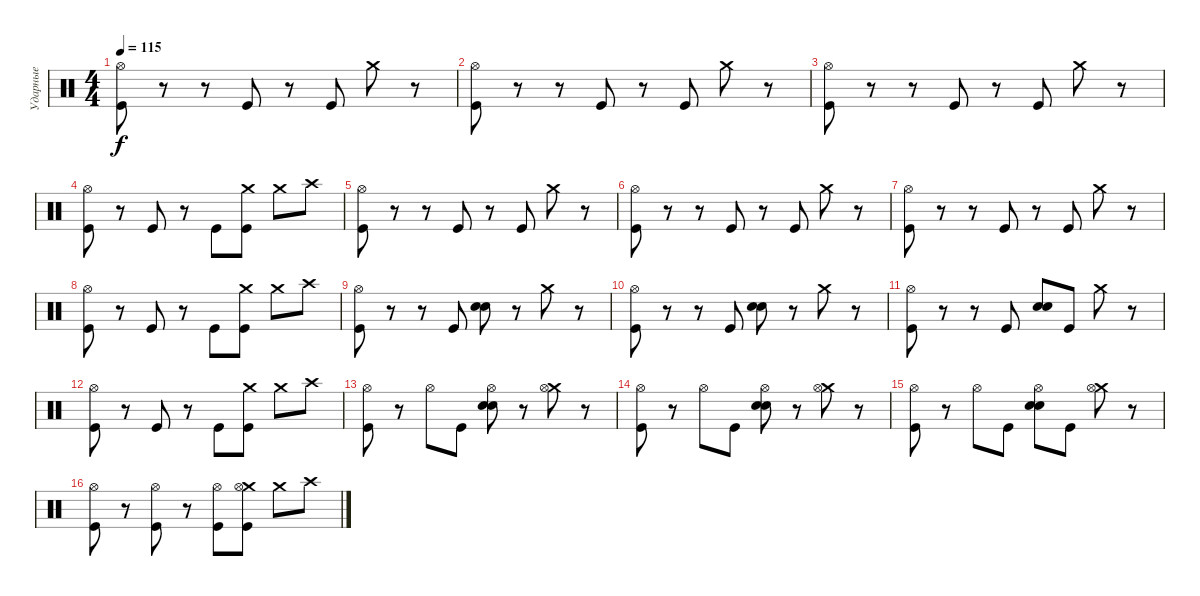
\track ("Ударные" "Ударные") {instrument percussion}
\staff {score}
\articulation defaults
\ts (4 4)
\tempo 115
\clef neutral
\ks c
("Hi-Hat (open)" "Kick (hit)").8{dy f} r.8 r.8 "Kick (hit)".8 r.8 "Kick (hit)".8 "Crash medium (hit)".8 r.8 |
("Hi-Hat (open)" "Kick (hit)").8 r.8 r.8 "Kick (hit)".8 r.8 "Kick (hit)".8 "Crash medium (hit)".8 r.8 |
("Hi-Hat (open)" "Kick (hit)").8 r.8 r.8 "Kick (hit)".8 r.8 "Kick (hit)".8 "Crash medium (hit)".8 r.8 |
("Hi-Hat (open)" "Kick (hit)").8 r.8 "Kick (hit)".8 r.8 "Kick (hit)".8 ("Crash medium (hit)" "Kick (hit)").8 "Crash medium (hit)".8 "Crash high (hit)".8 |
("Hi-Hat (open)" "Kick (hit)").8 r.8 r.8 "Kick (hit)".8 r.8 "Kick (hit)".8 "Crash medium (hit)".8 r.8 |
("Hi-Hat (open)" "Kick (hit)").8 r.8 r.8 "Kick (hit)".8 r.8 "Kick (hit)".8 "Crash medium (hit)".8 r.8 |
("Hi-Hat (open)" "Kick (hit)").8 r.8 r.8 "Kick (hit)".8 r.8 "Kick (hit)".8 "Crash medium (hit)".8 r.8 |
("Hi-Hat (open)" "Kick (hit)").8 r.8 "Kick (hit)".8 r.8 "Kick (hit)".8 ("Crash medium (hit)" "Kick (hit)").8 "Crash medium (hit)".8 "Crash high (hit)".8 |
("Hi-Hat (open)" "Kick (hit)").8 r.8 r.8 "Kick (hit)".8 ("Snare (hit) 2" "Snare (hit) 2").8 r.8 "Crash medium (hit)".8 r.8 |
("Hi-Hat (open)" "Kick (hit)").8 r.8 r.8 "Kick (hit)".8 ("Snare (hit) 2" "Snare (hit) 2").8 r.8 "Crash medium (hit)".8 r.8 |
("Hi-Hat (open)" "Kick (hit)").8 r.8 r.8 "Kick (hit)".8 ("Snare (hit) 2" "Snare (hit) 2").8 "Kick (hit)".8 "Crash medium (hit)".8 r.8 |
("Hi-Hat (open)" "Kick (hit)").8 r.8 "Kick (hit)".8 r.8 "Kick (hit)".8 ("Crash medium (hit)" "Kick (hit)").8 "Crash medium (hit)".8 "Crash high (hit)".8 |
("Hi-Hat (open)" "Kick (hit)").8 r.8 "Hi-Hat (open)".8 "Kick (hit)".8 ("Hi-Hat (open)" "Snare (hit) 2" "Snare (hit) 2").8 r.8 ("Crash medium (hit)" "Hi-Hat (open)").8 r.8 |
("Hi-Hat (open)" "Kick (hit)").8 r.8 "Hi-Hat (open)".8 "Kick (hit)".8 ("Hi-Hat (open)" "Snare (hit) 2" "Snare (hit) 2").8 r.8 ("Crash medium (hit)" "Hi-Hat (open)").8 r.8 |
("Hi-Hat (open)" "Kick (hit)").8 r.8 "Hi-Hat (open)".8 "Kick (hit)".8 ("Hi-Hat (open)" "Snare (hit) 2" "Snare (hit) 2").8 "Kick (hit)".8 ("Crash medium (hit)" "Hi-Hat (open)").8 r.8 |
("Hi-Hat (open)" "Kick (hit)").8 r.8 ("Hi-Hat (open)" "Kick (hit)").8 r.8 ("Hi-Hat (open)" "Kick (hit)").8 ("Crash medium (hit)" "Hi-Hat (open)" "Kick (hit)").8 "Crash medium (hit)".8 "Crash high (hit)".8
